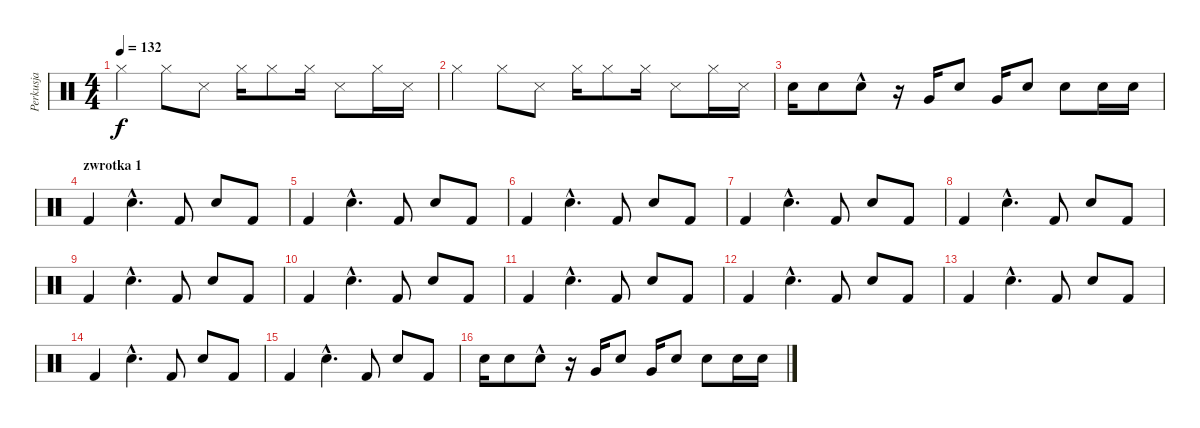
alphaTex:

\track ("Perkusja" "Perkusja") {instrument percussion}
\staff {score}
\articulation defaults
\ts (4 4)
\tempo 132
\clef neutral
\ks c "Hi-Hat (closed)".4{dy f} "Hi-Hat (closed)".8 "Snare (side stick) 3".8 "Hi-Hat (closed)".16 "Hi-Hat (closed)".8 "Hi-Hat (closed)".16 "Snare (side stick) 3".8 "Hi-Hat (closed)".16 "Snare (side stick) 3".16
|
"Hi-Hat (closed)".4 "Hi-Hat (closed)".8 "Snare (side stick) 3".8 "Hi-Hat (closed)".16 "Hi-Hat (closed)".8 "Hi-Hat (closed)".16 "Snare (side stick) 3".8 "Hi-Hat (closed)".16 "Snare (side stick) 3".16 |
"Snare (hit) 2".16 "Snare (hit) 2".8 "Snare (hit) 2"{hac}.8 r.16 "Very Low Tom (hit)".16 "Snare (hit) 2".8 "Very Low Tom (hit)".16 "Snare (hit) 2".8 "Snare (hit) 2".8 "Snare (hit) 2".16 "Snare (hit) 2".16 |
\section ("" "zwrotka 1")
"Kick (hit) 2".4 "Snare (hit) 2"{hac}.4{d} "Kick (hit) 2".8 "Snare (hit) 2".8 "Kick (hit) 2".8 |
"Kick (hit) 2".4 "Snare (hit) 2"{hac}.4{d} "Kick (hit) 2".8 "Snare (hit) 2".8 "Kick (hit) 2".8 |
"Kick (hit) 2".4 "Snare (hit) 2"{hac}.4{d} "Kick (hit) 2".8 "Snare (hit) 2".8 "Kick (hit) 2".8 |
"Kick (hit) 2".4 "Snare (hit) 2"{hac}.4{d} "Kick (hit) 2".8 "Snare (hit) 2".8 "Kick (hit) 2".8 |
"Kick (hit) 2".4 "Snare (hit) 2"{hac}.4{d} "Kick (hit) 2".8 "Snare (hit) 2".8 "Kick (hit) 2".8 |
"Kick (hit) 2".4 "Snare (hit) 2"{hac}.4{d} "Kick (hit) 2".8 "Snare (hit) 2".8 "Kick (hit) 2".8 |
"Kick (hit) 2".4 "Snare (hit) 2"{hac}.4{d} "Kick (hit) 2".8 "Snare (hit) 2".8 "Kick (hit) 2".8 |
"Kick (hit) 2".4 "Snare (hit) 2"{hac}.4{d} "Kick (hit) 2".8 "Snare (hit) 2".8 "Kick (hit) 2".8 |
"Kick (hit) 2".4 "Snare (hit) 2"{hac}.4{d} "Kick (hit) 2".8 "Snare (hit) 2".8 "Kick (hit) 2".8 |
"Kick (hit) 2".4 "Snare (hit) 2"{hac}.4{d} "Kick (hit) 2".8 "Snare (hit) 2".8 "Kick (hit) 2".8 |
"Kick (hit) 2".4 "Snare (hit) 2"{hac}.4{d} "Kick (hit) 2".8 "Snare (hit) 2".8 "Kick (hit) 2".8 |
"Kick (hit) 2".4 "Snare (hit) 2"{hac}.4{d} "Kick (hit) 2".8 "Snare (hit) 2".8 "Kick (hit) 2".8 |
"Snare (hit) 2".16 "Snare (hit) 2".8 "Snare (hit) 2"{hac}.8 r.16 "Very Low Tom (hit)".16 "Snare (hit) 2".8 "Very Low Tom (hit)".16 "Snare (hit) 2".8 "Snare (hit) 2".8 "Snare (hit) 2".16 "Snare (hit) 2".16
